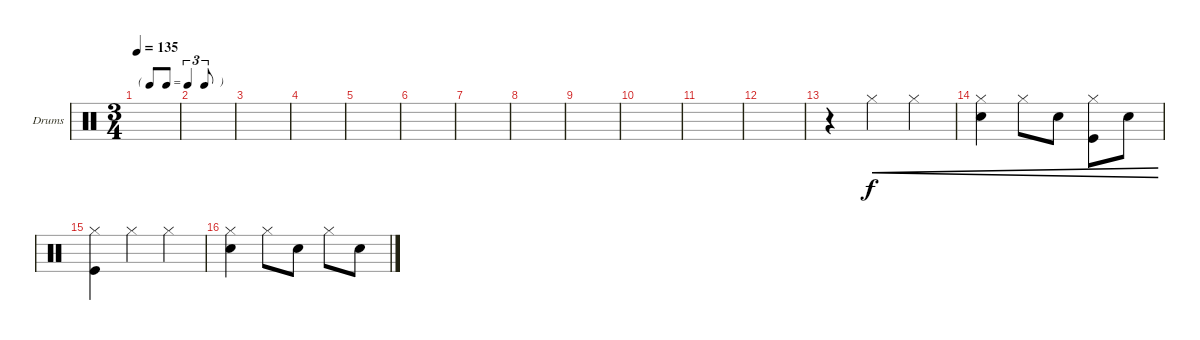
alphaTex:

\defaultSystemsLayout 4
\bracketExtendMode groupsimilarinstruments
\firstSystemTrackNameOrientation horizontal
\otherSystemsTrackNameOrientation horizontal
\track ("Drums" "Drums") {instrument percussion}
\staff {score}
\articulation defaults
\ts (3 4)
\tf triplet8th
\tempo 135
\clef neutral
\scale
0.472222
\ks c
|
\scale
0.263889 |
\scale
0.263889 |
\scale
0.333333 |
\scale
0.333333 |
\scale
0.333333 |
\scale
0.333333 |
\scale
0.333333 |
\scale
0.333333 |
\scale
0.333333 |
\scale
0.333333 |
\scale
0.333333 |
\scale
0.333333 r.4 "Hi-Hat (closed)".4{cre} "Hi-Hat (closed)".4{cre} |
\scale
0.333333 ("Hi-Hat (closed)" "Snare (hit) 2").4{cre} "Hi-Hat (closed)".8{cre} "Snare (hit) 2".8{cre} ("Hi-Hat (closed)" "Kick (hit)").8{cre} "Snare (hit) 2".8{cre} |
\scale
0.333333 ("Kick (hit)" "Hi-Hat (closed)").4 "Hi-Hat (closed)".4 "Hi-Hat (closed)".4 |
\scale
0.333333 ("Hi-Hat (closed)" "Snare (hit) 2").4 "Hi-Hat (closed)".8 "Snare (hit) 2".8 "Hi-Hat (closed)".8 "Snare (hit) 2".8
